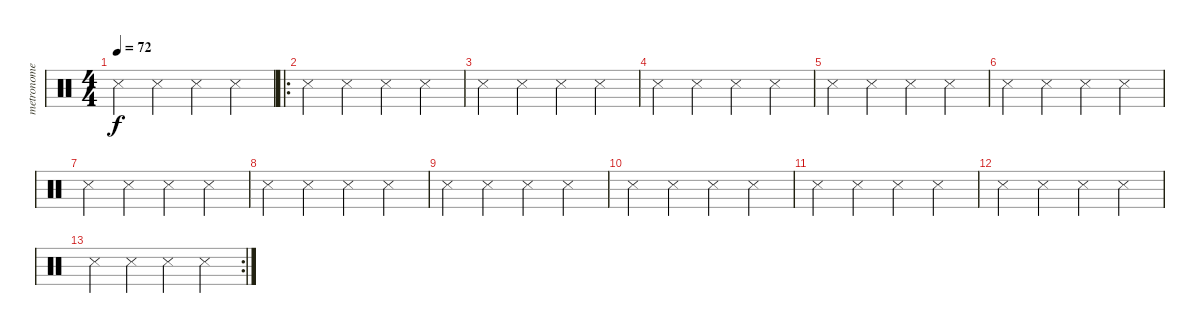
\track ("metronome" "metronome") {instrument percussion}
\staff {score}
\articulation defaults
\ts (4 4)
\tempo 72
\clef neutral
\ks c "Metronome (hit)".4{dy f} "Metronome (hit)".4 "Metronome (hit)".4 "Metronome (hit)".4
|
\ro "Metronome (hit)".4 "Metronome (hit)".4 "Metronome (hit)".4 "Metronome (hit)".4
|
"Metronome (hit)".4 "Metronome (hit)".4 "Metronome (hit)".4 "Metronome (hit)".4 |
"Metronome (hit)".4 "Metronome (hit)".4 "Metronome (hit)".4 "Metronome (hit)".4 |
"Metronome (hit)".4 "Metronome (hit)".4 "Metronome (hit)".4 "Metronome (hit)".4 |
"Metronome (hit)".4 "Metronome (hit)".4 "Metronome (hit)".4 "Metronome (hit)".4 |
"Metronome (hit)".4 "Metronome (hit)".4 "Metronome (hit)".4 "Metronome (hit)".4 |
"Metronome (hit)".4 "Metronome (hit)".4 "Metronome (hit)".4 "Metronome (hit)".4 |
"Metronome (hit)".4 "Metronome (hit)".4 "Metronome (hit)".4 "Metronome (hit)".4 |
"Metronome (hit)".4 "Metronome (hit)".4 "Metronome (hit)".4 "Metronome (hit)".4 |
"Metronome (hit)".4 "Metronome (hit)".4 "Metronome (hit)".4 "Metronome (hit)".4 |
"Metronome (hit)".4 "Metronome (hit)".4 "Metronome (hit)".4 "Metronome (hit)".4 |
\rc 2 "Metronome (hit)".4 "Metronome (hit)".4 "Metronome (hit)".4 "Metronome (hit)".4
